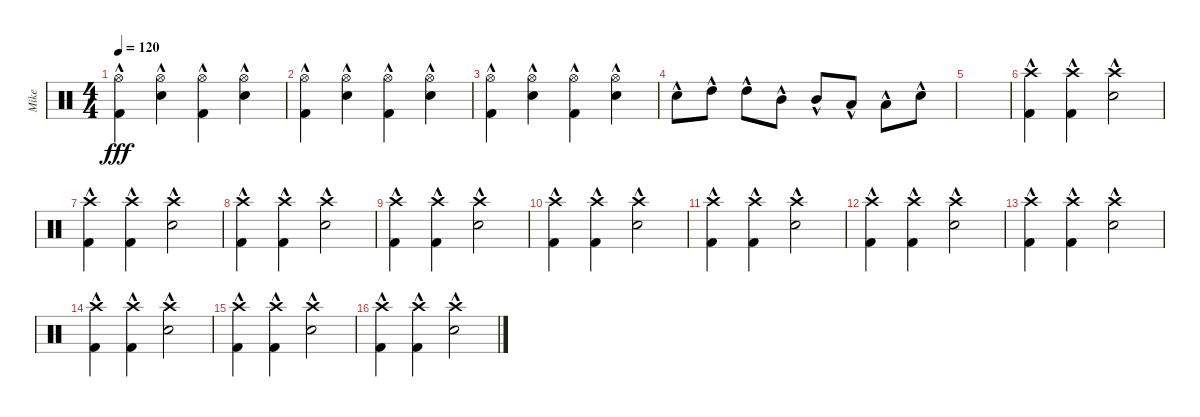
\track ("Mike" "Mike") {instrument percussion}
\staff {score}
\articulation defaults
\ts (4 4)
\tempo 120
\clef neutral
\ks c
("Hi-Hat (open)"{hac} "Kick (hit) 2"{hac}).4{dy fff} ("Hi-Hat (open)"{hac} "Electric Snare (hit)"{hac}).4 ("Hi-Hat (open)"{hac} "Kick (hit) 2"{hac}).4 ("Hi-Hat (open)"{hac} "Electric Snare (hit)"{hac}).4 |
("Hi-Hat (open)"{hac} "Kick (hit) 2"{hac}).4 ("Hi-Hat (open)"{hac} "Electric Snare (hit)"{hac}).4 ("Hi-Hat (open)"{hac} "Kick (hit) 2"{hac}).4 ("Hi-Hat (open)"{hac} "Electric Snare (hit)"{hac}).4 |
("Hi-Hat (open)"{hac} "Kick (hit) 2"{hac}).4 ("Hi-Hat (open)"{hac} "Electric Snare (hit)"{hac}).4 ("Hi-Hat (open)"{hac} "Kick (hit) 2"{hac}).4 ("Hi-Hat (open)"{hac} "Electric Snare (hit)"{hac}).4 |
"Electric Snare (hit)"{hac}.8 "High Tom (hit)"{hac}.8 "High Tom (hit)"{hac}.8 "Mid Tom (hit)"{hac}.8 "Mid Tom (hit)"{hac}.8 "Low Tom (hit)"{hac}.8 "Low Tom (hit)"{hac}.8 "Electric Snare (hit)"{hac}.8 |
|
("Crash high (hit)"{hac} "Kick (hit) 2"{hac}).4 ("Crash high (hit)"{hac} "Kick (hit) 2"{hac}).4 ("Crash high (hit)"{hac} "Electric Snare (hit)"{hac}).2 |
("Crash high (hit)"{hac} "Kick (hit) 2"{hac}).4 ("Crash high (hit)"{hac} "Kick (hit) 2"{hac}).4 ("Crash high (hit)"{hac} "Electric Snare (hit)"{hac}).2 |
("Crash high (hit)"{hac} "Kick (hit) 2"{hac}).4 ("Crash high (hit)"{hac} "Kick (hit) 2"{hac}).4 ("Crash high (hit)"{hac} "Electric Snare (hit)"{hac}).2 |
("Crash high (hit)"{hac} "Kick (hit) 2"{hac}).4 ("Crash high (hit)"{hac} "Kick (hit) 2"{hac}).4 ("Crash high (hit)"{hac} "Electric Snare (hit)"{hac}).2 |
("Crash high (hit)"{hac} "Kick (hit) 2"{hac}).4 ("Crash high (hit)"{hac} "Kick (hit) 2"{hac}).4 ("Crash high (hit)"{hac} "Electric Snare (hit)"{hac}).2 |
("Crash high (hit)"{hac} "Kick (hit) 2"{hac}).4 ("Crash high (hit)"{hac} "Kick (hit) 2"{hac}).4 ("Crash high (hit)"{hac} "Electric Snare (hit)"{hac}).2 |
("Crash high (hit)"{hac} "Kick (hit) 2"{hac}).4 ("Crash high (hit)"{hac} "Kick (hit) 2"{hac}).4 ("Crash high (hit)"{hac} "Electric Snare (hit)"{hac}).2 |
("Crash high (hit)"{hac} "Kick (hit) 2"{hac}).4 ("Crash high (hit)"{hac} "Kick (hit) 2"{hac}).4 ("Crash high (hit)"{hac} "Electric Snare (hit)"{hac}).2 |
("Crash high (hit)"{hac} "Kick (hit) 2"{hac}).4 ("Crash high (hit)"{hac} "Kick (hit) 2"{hac}).4 ("Crash high (hit)"{hac} "Electric Snare (hit)"{hac}).2 |
("Crash high (hit)"{hac} "Kick (hit) 2"{hac}).4 ("Crash high (hit)"{hac} "Kick (hit) 2"{hac}).4 ("Crash high (hit)"{hac} "Electric Snare (hit)"{hac}).2 |
("Crash high (hit)"{hac} "Kick (hit) 2"{hac}).4 ("Crash high (hit)"{hac} "Kick (hit) 2"{hac}).4 ("Crash high (hit)"{hac} "Electric Snare (hit)"{hac}).2
